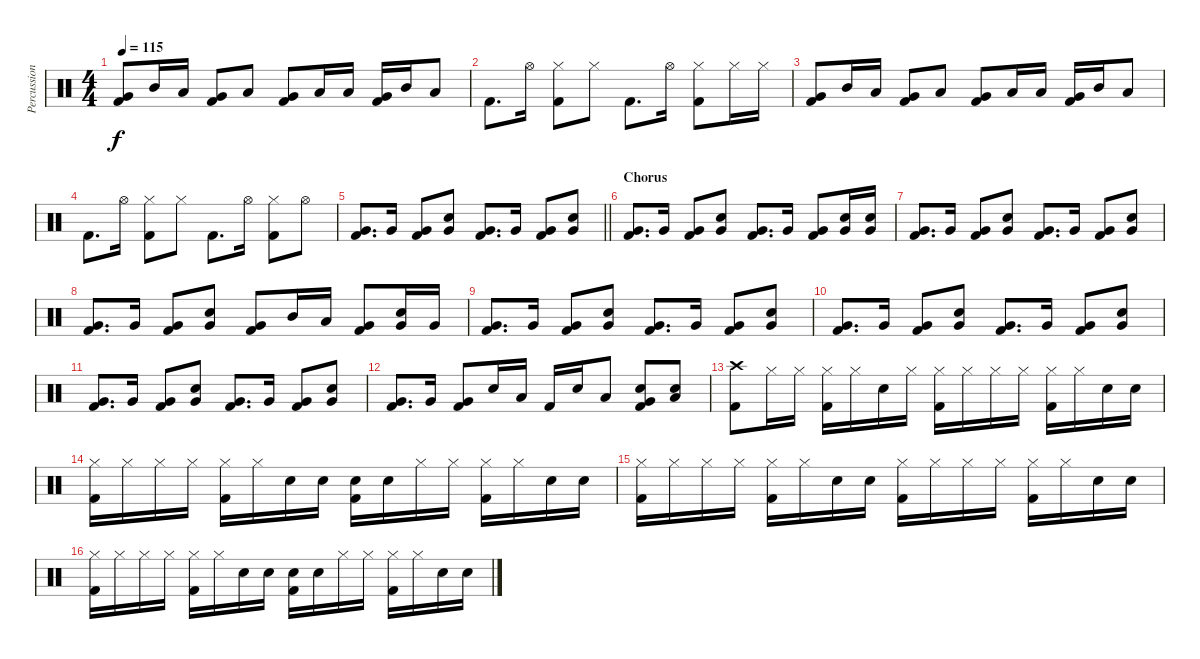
\track ("Percussion" "Percussion") {instrument percussion}
\staff {score}
\articulation defaults
\ts (4 4)
\tempo 115
\clef neutral
\ks c
("Very Low Tom (hit)" "Kick (hit) 2").8{dy f} "Mid Tom (hit)".16 "Low Tom (hit)".16 ("Very Low Tom (hit)" "Kick (hit) 2").8 "Low Tom (hit)".8 ("Very Low Tom (hit)" "Kick (hit) 2").8 "Low Tom (hit)".16 "Low Tom (hit)".16 ("Very Low Tom (hit)" "Kick (hit) 2").16 "Mid Tom (hit)".16 "Low Tom (hit)".8 |
"Kick (hit) 2".8{d} "Hi-Hat (open)".16 ("Hi-Hat (closed)" "Kick (hit) 2").8 "Hi-Hat (closed)".8 "Kick (hit) 2".8{d} "Hi-Hat (open)".16 ("Hi-Hat (closed)" "Kick (hit) 2").8 "Hi-Hat (closed)".16 "Hi-Hat (closed)".16 |
("Very Low Tom (hit)" "Kick (hit) 2").8 "Mid Tom (hit)".16 "Low Tom (hit)".16 ("Very Low Tom (hit)" "Kick (hit) 2").8 "Low Tom (hit)".8 ("Very Low Tom (hit)" "Kick (hit) 2").8 "Low Tom (hit)".16 "Low Tom (hit)".16 ("Very Low Tom (hit)" "Kick (hit) 2").16 "Mid Tom (hit)".16 "Low Tom (hit)".8 |
"Kick (hit) 2".8{d} "Hi-Hat (open)".16 ("Hi-Hat (closed)" "Kick (hit) 2").8 "Hi-Hat (closed)".8 "Kick (hit) 2".8{d} "Hi-Hat (open)".16 ("Hi-Hat (closed)" "Kick (hit) 2").8 "Hi-Hat (open)".8 |
\barLineRight lightlight
("Very Low Tom (hit)" "Kick (hit) 2").8{d} "Very Low Tom (hit)".16 ("Very Low Tom (hit)" "Kick (hit) 2").8 ("Very Low Tom (hit)" "Snare (hit) 2").8 ("Very Low Tom (hit)" "Kick (hit) 2").8{d} "Very Low Tom (hit)".16 ("Very Low Tom (hit)" "Kick (hit) 2").8 ("Very Low Tom (hit)" "Snare (hit) 2").8 |
\section ("" "Chorus")
("Very Low Tom (hit)" "Kick (hit) 2").8{d} "Very Low Tom (hit)".16 ("Very Low Tom (hit)" "Kick (hit) 2").8 ("Very Low Tom (hit)" "Snare (hit) 2").8 ("Very Low Tom (hit)" "Kick (hit) 2").8{d} "Very Low Tom (hit)".16 ("Very Low Tom (hit)" "Kick (hit) 2").8 ("Very Low Tom (hit)" "Snare (hit) 2").16 ("Very Low Tom (hit)" "Snare (hit) 2").16 |
("Very Low Tom (hit)" "Kick (hit) 2").8{d} "Very Low Tom (hit)".16 ("Very Low Tom (hit)" "Kick (hit) 2").8 ("Very Low Tom (hit)" "Snare (hit) 2").8 ("Very Low Tom (hit)" "Kick (hit) 2").8{d} "Very Low Tom (hit)".16 ("Very Low Tom (hit)" "Kick (hit) 2").8 ("Very Low Tom (hit)" "Snare (hit) 2").8 |
("Very Low Tom (hit)" "Kick (hit) 2").8{d} "Very Low Tom (hit)".16 ("Very Low Tom (hit)" "Kick (hit) 2").8 ("Very Low Tom (hit)" "Snare (hit) 2").8 ("Very Low Tom (hit)" "Kick (hit) 2").8 "Mid Tom (hit)".16 "Low Tom (hit)".16 ("Very Low Tom (hit)" "Kick (hit) 2").8 ("Very Low Tom (hit)" "Snare (hit) 2").16 "Very Low Tom (hit)".16 |
("Very Low Tom (hit)" "Kick (hit) 2").8{d} "Very Low Tom (hit)".16 ("Very Low Tom (hit)" "Kick (hit) 2").8 ("Very Low Tom (hit)" "Snare (hit) 2").8 ("Very Low Tom (hit)" "Kick (hit) 2").8{d} "Very Low Tom (hit)".16 ("Very Low Tom (hit)" "Kick (hit) 2").8 ("Very Low Tom (hit)" "Snare (hit) 2").8 |
("Very Low Tom (hit)" "Kick (hit) 2").8{d} "Very Low Tom (hit)".16 ("Very Low Tom (hit)" "Kick (hit) 2").8 ("Very Low Tom (hit)" "Snare (hit) 2").8 ("Very Low Tom (hit)" "Kick (hit) 2").8{d} "Very Low Tom (hit)".16 ("Very Low Tom (hit)" "Kick (hit) 2").8 ("Very Low Tom (hit)" "Snare (hit) 2").8 |
("Very Low Tom (hit)" "Kick (hit) 2").8{d} "Very Low Tom (hit)".16 ("Very Low Tom (hit)" "Kick (hit) 2").8 ("Very Low Tom (hit)" "Snare (hit) 2").8 ("Very Low Tom (hit)" "Kick (hit) 2").8{d} "Very Low Tom (hit)".16 ("Very Low Tom (hit)" "Kick (hit) 2").8 ("Very Low Tom (hit)" "Snare (hit) 2").8 |
("Very Low Tom (hit)" "Kick (hit) 2").8{d} "Very Low Tom (hit)".16 ("Very Low Tom (hit)" "Kick (hit) 2").8 "Snare (hit) 2".16 "Low Floor Tom (hit)".16 "Kick (hit) 2".16 "Snare (hit) 2".16 "Low Floor Tom (hit)".8 ("Very Low Tom (hit)" "Snare (hit) 2" "Kick (hit) 2").8 ("Low Floor Tom (hit)" "Snare (hit) 2").8 |
("Crash high (hit)" "Kick (hit) 2").8 "Hi-Hat (closed)".16 "Hi-Hat (closed)".16 ("Hi-Hat (closed)" "Kick (hit) 2").16 "Hi-Hat (closed)".16 "Snare (hit) 2".16 "Hi-Hat (closed)".16 ("Hi-Hat (closed)" "Kick (hit) 2").16 "Hi-Hat (closed)".16 "Hi-Hat (closed)".16 "Hi-Hat (closed)".16 ("Hi-Hat (closed)" "Kick (hit) 2").16 "Hi-Hat (closed)".16 "Snare (hit) 2".16 "Snare (hit) 2".16 |
("Hi-Hat (closed)" "Kick (hit) 2").16 "Hi-Hat (closed)".16 "Hi-Hat (closed)".16 "Hi-Hat (closed)".16 ("Hi-Hat (closed)" "Kick (hit) 2").16 "Hi-Hat (closed)".16 "Snare (hit) 2".16 "Snare (hit) 2".16 ("Snare (hit) 2" "Kick (hit) 2").16 "Snare (hit) 2".16 "Hi-Hat (closed)".16 "Hi-Hat (closed)".16 ("Hi-Hat (closed)" "Kick (hit) 2").16 "Hi-Hat (closed)".16 "Snare (hit) 2".16 "Snare (hit) 2".16 |
("Hi-Hat (closed)" "Kick (hit) 2").16 "Hi-Hat (closed)".16 "Hi-Hat (closed)".16 "Hi-Hat (closed)".16 ("Hi-Hat (closed)" "Kick (hit) 2").16 "Hi-Hat (closed)".16 "Snare (hit) 2".16 "Snare (hit) 2".16 ("Hi-Hat (closed)" "Kick (hit) 2").16 "Hi-Hat (closed)".16 "Hi-Hat (closed)".16 "Hi-Hat (closed)".16 ("Hi-Hat (closed)" "Kick (hit) 2").16 "Hi-Hat (closed)".16 "Snare (hit) 2".16 "Snare (hit) 2".16 |
("Hi-Hat (closed)" "Kick (hit) 2").16 "Hi-Hat (closed)".16 "Hi-Hat (closed)".16 "Hi-Hat (closed)".16 ("Hi-Hat (closed)" "Kick (hit) 2").16 "Hi-Hat (closed)".16 "Snare (hit) 2".16 "Snare (hit) 2".16 ("Snare (hit) 2" "Kick (hit) 2").16 "Snare (hit) 2".16 "Hi-Hat (closed)".16 "Hi-Hat (closed)".16 ("Hi-Hat (closed)" "Kick (hit) 2").16 "Hi-Hat (closed)".16 "Snare (hit) 2".16 "Snare (hit) 2".16
